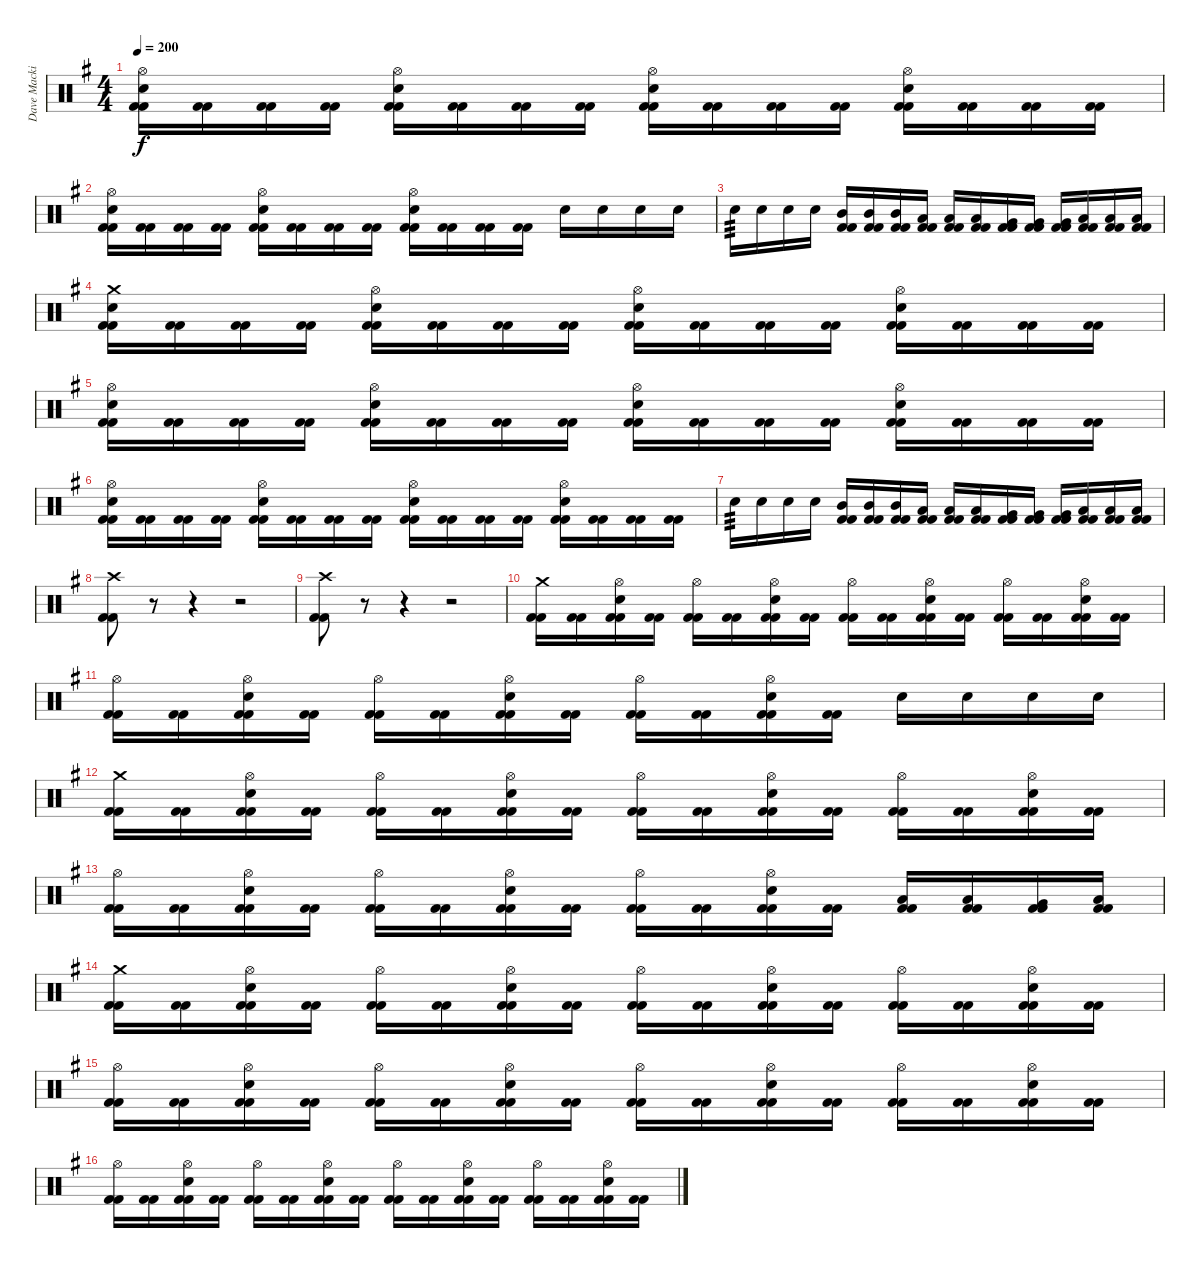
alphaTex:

\track ("Dave Mackintosh" "Dave Macki") {instrument percussion}
\staff {score}
\articulation defaults
\ts (4 4)
\tempo 200
\clef neutral
\ks g
("Hi-Hat (open)" "Electric Snare (hit)" "Kick (hit) 2" "Kick (hit) 2").16{dy f} ("Kick (hit) 2" "Kick (hit) 2").16 ("Kick (hit) 2" "Kick (hit) 2").16 ("Kick (hit) 2" "Kick (hit) 2").16 ("Hi-Hat (open)" "Electric Snare (hit)" "Kick (hit) 2" "Kick (hit) 2").16 ("Kick (hit) 2" "Kick (hit) 2").16 ("Kick (hit) 2" "Kick (hit) 2").16 ("Kick (hit) 2" "Kick (hit) 2").16 ("Hi-Hat (open)" "Electric Snare (hit)" "Kick (hit) 2" "Kick (hit) 2").16 ("Kick (hit) 2" "Kick (hit) 2").16 ("Kick (hit) 2" "Kick (hit) 2").16 ("Kick (hit) 2" "Kick (hit) 2").16 ("Hi-Hat (open)" "Electric Snare (hit)" "Kick (hit) 2" "Kick (hit) 2").16 ("Kick (hit) 2" "Kick (hit) 2").16 ("Kick (hit) 2" "Kick (hit) 2").16 ("Kick (hit) 2" "Kick (hit) 2").16 |
("Hi-Hat (open)" "Electric Snare (hit)" "Kick (hit) 2" "Kick (hit) 2").16 ("Kick (hit) 2" "Kick (hit) 2").16 ("Kick (hit) 2" "Kick (hit) 2").16 ("Kick (hit) 2" "Kick (hit) 2").16 ("Hi-Hat (open)" "Electric Snare (hit)" "Kick (hit) 2" "Kick (hit) 2").16 ("Kick (hit) 2" "Kick (hit) 2").16 ("Kick (hit) 2" "Kick (hit) 2").16 ("Kick (hit) 2" "Kick (hit) 2").16 ("Hi-Hat (open)" "Electric Snare (hit)" "Kick (hit) 2" "Kick (hit) 2").16 ("Kick (hit) 2" "Kick (hit) 2").16 ("Kick (hit) 2" "Kick (hit) 2").16 ("Kick (hit) 2" "Kick (hit) 2").16 "Electric Snare (hit)".16 "Electric Snare (hit)".16 "Electric Snare (hit)".16 "Electric Snare (hit)".16 |
"Electric Snare (hit)".16{tp 3} "Electric Snare (hit)".16 "Electric Snare (hit)".16 "Electric Snare (hit)".16 ("Mid Tom (hit)" "Kick (hit) 2" "Kick (hit) 2").16 ("Mid Tom (hit)" "Kick (hit) 2" "Kick (hit) 2").16 ("Mid Tom (hit)" "Kick (hit) 2" "Kick (hit) 2").16 ("Low Tom (hit)" "Kick (hit) 2" "Kick (hit) 2").16 ("Low Tom (hit)" "Kick (hit) 2" "Kick (hit) 2").16 ("Low Tom (hit)" "Kick (hit) 2" "Kick (hit) 2").16 ("Very Low Tom (hit)" "Kick (hit) 2" "Kick (hit) 2").16 ("Very Low Tom (hit)" "Kick (hit) 2" "Kick (hit) 2").16 ("Very Low Tom (hit)" "Kick (hit) 2" "Kick (hit) 2").16 ("Low Floor Tom (hit)" "Kick (hit) 2" "Kick (hit) 2").16 ("Low Floor Tom (hit)" "Kick (hit) 2" "Kick (hit) 2").16 ("Low Floor Tom (hit)" "Kick (hit) 2" "Kick (hit) 2").16 |
("Crash medium (hit)" "Electric Snare (hit)" "Kick (hit) 2" "Kick (hit) 2").16 ("Kick (hit) 2" "Kick (hit) 2").16 ("Kick (hit) 2" "Kick (hit) 2").16 ("Kick (hit) 2" "Kick (hit) 2").16 ("Hi-Hat (open)" "Electric Snare (hit)" "Kick (hit) 2" "Kick (hit) 2").16 ("Kick (hit) 2" "Kick (hit) 2").16 ("Kick (hit) 2" "Kick (hit) 2").16 ("Kick (hit) 2" "Kick (hit) 2").16 ("Hi-Hat (open)" "Electric Snare (hit)" "Kick (hit) 2" "Kick (hit) 2").16 ("Kick (hit) 2" "Kick (hit) 2").16 ("Kick (hit) 2" "Kick (hit) 2").16 ("Kick (hit) 2" "Kick (hit) 2").16 ("Hi-Hat (open)" "Electric Snare (hit)" "Kick (hit) 2" "Kick (hit) 2").16 ("Kick (hit) 2" "Kick (hit) 2").16 ("Kick (hit) 2" "Kick (hit) 2").16 ("Kick (hit) 2" "Kick (hit) 2").16 |
("Hi-Hat (open)" "Electric Snare (hit)" "Kick (hit) 2" "Kick (hit) 2").16 ("Kick (hit) 2" "Kick (hit) 2").16 ("Kick (hit) 2" "Kick (hit) 2").16 ("Kick (hit) 2" "Kick (hit) 2").16 ("Hi-Hat (open)" "Electric Snare (hit)" "Kick (hit) 2" "Kick (hit) 2").16 ("Kick (hit) 2" "Kick (hit) 2").16 ("Kick (hit) 2" "Kick (hit) 2").16 ("Kick (hit) 2" "Kick (hit) 2").16 ("Hi-Hat (open)" "Electric Snare (hit)" "Kick (hit) 2" "Kick (hit) 2").16 ("Kick (hit) 2" "Kick (hit) 2").16 ("Kick (hit) 2" "Kick (hit) 2").16 ("Kick (hit) 2" "Kick (hit) 2").16 ("Hi-Hat (open)" "Electric Snare (hit)" "Kick (hit) 2" "Kick (hit) 2").16 ("Kick (hit) 2" "Kick (hit) 2").16 ("Kick (hit) 2" "Kick (hit) 2").16 ("Kick (hit) 2" "Kick (hit) 2").16 |
("Hi-Hat (open)" "Electric Snare (hit)" "Kick (hit) 2" "Kick (hit) 2").16 ("Kick (hit) 2" "Kick (hit) 2").16 ("Kick (hit) 2" "Kick (hit) 2").16 ("Kick (hit) 2" "Kick (hit) 2").16 ("Hi-Hat (open)" "Electric Snare (hit)" "Kick (hit) 2" "Kick (hit) 2").16 ("Kick (hit) 2" "Kick (hit) 2").16 ("Kick (hit) 2" "Kick (hit) 2").16 ("Kick (hit) 2" "Kick (hit) 2").16 ("Hi-Hat (open)" "Electric Snare (hit)" "Kick (hit) 2" "Kick (hit) 2").16 ("Kick (hit) 2" "Kick (hit) 2").16 ("Kick (hit) 2" "Kick (hit) 2").16 ("Kick (hit) 2" "Kick (hit) 2").16 ("Hi-Hat (open)" "Electric Snare (hit)" "Kick (hit) 2" "Kick (hit) 2").16 ("Kick (hit) 2" "Kick (hit) 2").16 ("Kick (hit) 2" "Kick (hit) 2").16 ("Kick (hit) 2" "Kick (hit) 2").16 |
"Electric Snare (hit)".16{tp 3} "Electric Snare (hit)".16 "Electric Snare (hit)".16 "Electric Snare (hit)".16 ("Mid Tom (hit)" "Kick (hit) 2" "Kick (hit) 2").16 ("Mid Tom (hit)" "Kick (hit) 2" "Kick (hit) 2").16 ("Mid Tom (hit)" "Kick (hit) 2" "Kick (hit) 2").16 ("Low Tom (hit)" "Kick (hit) 2" "Kick (hit) 2").16 ("Low Tom (hit)" "Kick (hit) 2" "Kick (hit) 2").16 ("Low Tom (hit)" "Kick (hit) 2" "Kick (hit) 2").16 ("Very Low Tom (hit)" "Kick (hit) 2" "Kick (hit) 2").16 ("Very Low Tom (hit)" "Kick (hit) 2" "Kick (hit) 2").16 ("Very Low Tom (hit)" "Kick (hit) 2" "Kick (hit) 2").16 ("Low Floor Tom (hit)" "Kick (hit) 2" "Kick (hit) 2").16 ("Low Floor Tom (hit)" "Kick (hit) 2" "Kick (hit) 2").16 ("Low Floor Tom (hit)" "Kick (hit) 2" "Kick (hit) 2").16 |
("Crash high (hit)" "Kick (hit) 2" "Kick (hit) 2").8 r.8{volume 0} r.4 r.2 |
("Crash high (hit)" "Kick (hit) 2" "Kick (hit) 2").8{volume 16} r.8{volume 0} r.4 r.2 |
("Crash medium (hit)" "Kick (hit) 2" "Kick (hit) 2").16{volume 16} ("Kick (hit) 2" "Kick (hit) 2").16 ("Hi-Hat (open)" "Electric Snare (hit)" "Kick (hit) 2" "Kick (hit) 2").16 ("Kick (hit) 2" "Kick (hit) 2").16 ("Hi-Hat (open)" "Kick (hit) 2" "Kick (hit) 2").16 ("Kick (hit) 2" "Kick (hit) 2").16 ("Hi-Hat (open)" "Electric Snare (hit)" "Kick (hit) 2" "Kick (hit) 2").16 ("Kick (hit) 2" "Kick (hit) 2").16 ("Hi-Hat (open)" "Kick (hit) 2" "Kick (hit) 2").16 ("Kick (hit) 2" "Kick (hit) 2").16 ("Hi-Hat (open)" "Electric Snare (hit)" "Kick (hit) 2" "Kick (hit) 2").16 ("Kick (hit) 2" "Kick (hit) 2").16 ("Hi-Hat (open)" "Kick (hit) 2" "Kick (hit) 2").16 ("Kick (hit) 2" "Kick (hit) 2").16 ("Hi-Hat (open)" "Electric Snare (hit)" "Kick (hit) 2" "Kick (hit) 2").16 ("Kick (hit) 2" "Kick (hit) 2").16 |
("Hi-Hat (open)" "Kick (hit) 2" "Kick (hit) 2").16 ("Kick (hit) 2" "Kick (hit) 2").16 ("Hi-Hat (open)" "Electric Snare (hit)" "Kick (hit) 2" "Kick (hit) 2").16 ("Kick (hit) 2" "Kick (hit) 2").16 ("Hi-Hat (open)" "Kick (hit) 2" "Kick (hit) 2").16 ("Kick (hit) 2" "Kick (hit) 2").16 ("Hi-Hat (open)" "Electric Snare (hit)" "Kick (hit) 2" "Kick (hit) 2").16 ("Kick (hit) 2" "Kick (hit) 2").16 ("Hi-Hat (open)" "Kick (hit) 2" "Kick (hit) 2").16 ("Kick (hit) 2" "Kick (hit) 2").16 ("Hi-Hat (open)" "Electric Snare (hit)" "Kick (hit) 2" "Kick (hit) 2").16 ("Kick (hit) 2" "Kick (hit) 2").16 "Electric Snare (hit)".16 "Electric Snare (hit)".16 "Electric Snare (hit)".16 "Electric Snare (hit)".16 |
("Crash medium (hit)" "Kick (hit) 2" "Kick (hit) 2").16 ("Kick (hit) 2" "Kick (hit) 2").16 ("Hi-Hat (open)" "Electric Snare (hit)" "Kick (hit) 2" "Kick (hit) 2").16 ("Kick (hit) 2" "Kick (hit) 2").16 ("Hi-Hat (open)" "Kick (hit) 2" "Kick (hit) 2").16 ("Kick (hit) 2" "Kick (hit) 2").16 ("Hi-Hat (open)" "Electric Snare (hit)" "Kick (hit) 2" "Kick (hit) 2").16 ("Kick (hit) 2" "Kick (hit) 2").16 ("Hi-Hat (open)" "Kick (hit) 2" "Kick (hit) 2").16 ("Kick (hit) 2" "Kick (hit) 2").16 ("Hi-Hat (open)" "Electric Snare (hit)" "Kick (hit) 2" "Kick (hit) 2").16 ("Kick (hit) 2" "Kick (hit) 2").16 ("Hi-Hat (open)" "Kick (hit) 2" "Kick (hit) 2").16 ("Kick (hit) 2" "Kick (hit) 2").16 ("Hi-Hat (open)" "Electric Snare (hit)" "Kick (hit) 2" "Kick (hit) 2").16 ("Kick (hit) 2" "Kick (hit) 2").16 |
("Hi-Hat (open)" "Kick (hit) 2" "Kick (hit) 2").16 ("Kick (hit) 2" "Kick (hit) 2").16 ("Hi-Hat (open)" "Electric Snare (hit)" "Kick (hit) 2" "Kick (hit) 2").16 ("Kick (hit) 2" "Kick (hit) 2").16 ("Hi-Hat (open)" "Kick (hit) 2" "Kick (hit) 2").16 ("Kick (hit) 2" "Kick (hit) 2").16 ("Hi-Hat (open)" "Electric Snare (hit)" "Kick (hit) 2" "Kick (hit) 2").16 ("Kick (hit) 2" "Kick (hit) 2").16 ("Hi-Hat (open)" "Kick (hit) 2" "Kick (hit) 2").16 ("Kick (hit) 2" "Kick (hit) 2").16 ("Hi-Hat (open)" "Electric Snare (hit)" "Kick (hit) 2" "Kick (hit) 2").16 ("Kick (hit) 2" "Kick (hit) 2").16 ("Low Tom (hit)" "Kick (hit) 2" "Kick (hit) 2").16 ("Low Tom (hit)" "Kick (hit) 2" "Kick (hit) 2").16 ("Very Low Tom (hit)" "Kick (hit) 2" "Kick (hit) 2").16 ("Low Floor Tom (hit)" "Kick (hit) 2" "Kick (hit) 2").16 |
("Crash medium (hit)" "Kick (hit) 2" "Kick (hit) 2").16 ("Kick (hit) 2" "Kick (hit) 2").16 ("Hi-Hat (open)" "Electric Snare (hit)" "Kick (hit) 2" "Kick (hit) 2").16 ("Kick (hit) 2" "Kick (hit) 2").16 ("Hi-Hat (open)" "Kick (hit) 2" "Kick (hit) 2").16 ("Kick (hit) 2" "Kick (hit) 2").16 ("Hi-Hat (open)" "Electric Snare (hit)" "Kick (hit) 2" "Kick (hit) 2").16 ("Kick (hit) 2" "Kick (hit) 2").16 ("Hi-Hat (open)" "Kick (hit) 2" "Kick (hit) 2").16 ("Kick (hit) 2" "Kick (hit) 2").16 ("Hi-Hat (open)" "Electric Snare (hit)" "Kick (hit) 2" "Kick (hit) 2").16 ("Kick (hit) 2" "Kick (hit) 2").16 ("Hi-Hat (open)" "Kick (hit) 2" "Kick (hit) 2").16 ("Kick (hit) 2" "Kick (hit) 2").16 ("Hi-Hat (open)" "Electric Snare (hit)" "Kick (hit) 2" "Kick (hit) 2").16 ("Kick (hit) 2" "Kick (hit) 2").16 |
("Hi-Hat (open)" "Kick (hit) 2" "Kick (hit) 2").16 ("Kick (hit) 2" "Kick (hit) 2").16 ("Hi-Hat (open)" "Electric Snare (hit)" "Kick (hit) 2" "Kick (hit) 2").16 ("Kick (hit) 2" "Kick (hit) 2").16 ("Hi-Hat (open)" "Kick (hit) 2" "Kick (hit) 2").16 ("Kick (hit) 2" "Kick (hit) 2").16 ("Hi-Hat (open)" "Electric Snare (hit)" "Kick (hit) 2" "Kick (hit) 2").16 ("Kick (hit) 2" "Kick (hit) 2").16 ("Hi-Hat (open)" "Kick (hit) 2" "Kick (hit) 2").16 ("Kick (hit) 2" "Kick (hit) 2").16 ("Hi-Hat (open)" "Electric Snare (hit)" "Kick (hit) 2" "Kick (hit) 2").16 ("Kick (hit) 2" "Kick (hit) 2").16 ("Hi-Hat (open)" "Kick (hit) 2" "Kick (hit) 2").16 ("Kick (hit) 2" "Kick (hit) 2").16 ("Hi-Hat (open)" "Electric Snare (hit)" "Kick (hit) 2" "Kick (hit) 2").16 ("Kick (hit) 2" "Kick (hit) 2").16 |
("Hi-Hat (open)" "Kick (hit) 2" "Kick (hit) 2").16 ("Kick (hit) 2" "Kick (hit) 2").16 ("Hi-Hat (open)" "Electric Snare (hit)" "Kick (hit) 2" "Kick (hit) 2").16 ("Kick (hit) 2" "Kick (hit) 2").16 ("Hi-Hat (open)" "Kick (hit) 2" "Kick (hit) 2").16 ("Kick (hit) 2" "Kick (hit) 2").16 ("Hi-Hat (open)" "Electric Snare (hit)" "Kick (hit) 2" "Kick (hit) 2").16 ("Kick (hit) 2" "Kick (hit) 2").16 ("Hi-Hat (open)" "Kick (hit) 2" "Kick (hit) 2").16 ("Kick (hit) 2" "Kick (hit) 2").16 ("Hi-Hat (open)" "Electric Snare (hit)" "Kick (hit) 2" "Kick (hit) 2").16 ("Kick (hit) 2" "Kick (hit) 2").16 ("Hi-Hat (open)" "Kick (hit) 2" "Kick (hit) 2").16 ("Kick (hit) 2" "Kick (hit) 2").16 ("Hi-Hat (open)" "Electric Snare (hit)" "Kick (hit) 2" "Kick (hit) 2").16 ("Kick (hit) 2" "Kick (hit) 2").16
